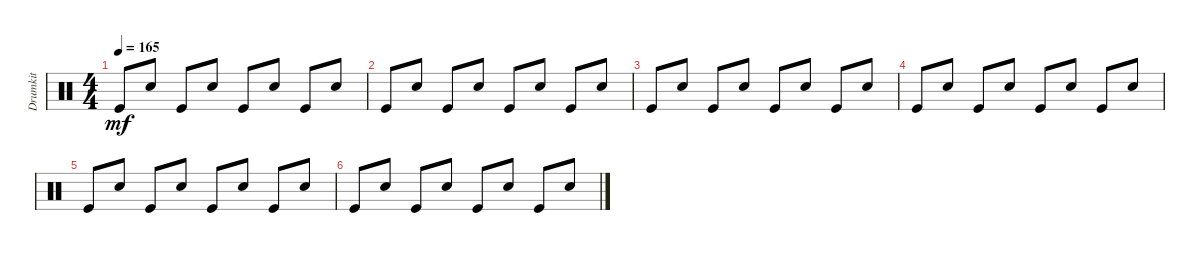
\track ("Drumkit" "Drumkit") {instrument percussion}
\staff {score}
\articulation defaults
\ts (4 4)
\tempo 165
\clef neutral
\ks c "Kick (hit)".8{dy mf} "Electric Snare (hit)".8 "Kick (hit)".8 "Electric Snare (hit)".8 "Kick (hit)".8 "Electric Snare (hit)".8 "Kick (hit)".8 "Electric Snare (hit)".8
|
"Kick (hit)".8 "Electric Snare (hit)".8 "Kick (hit)".8 "Electric Snare (hit)".8 "Kick (hit)".8 "Electric Snare (hit)".8 "Kick (hit)".8 "Electric Snare (hit)".8 |
"Kick (hit)".8 "Electric Snare (hit)".8 "Kick (hit)".8 "Electric Snare (hit)".8 "Kick (hit)".8 "Electric Snare (hit)".8 "Kick (hit)".8 "Electric Snare (hit)".8 |
"Kick (hit)".8 "Electric Snare (hit)".8 "Kick (hit)".8 "Electric Snare (hit)".8 "Kick (hit)".8 "Electric Snare (hit)".8 "Kick (hit)".8 "Electric Snare (hit)".8 |
"Kick (hit)".8 "Electric Snare (hit)".8 "Kick (hit)".8 "Electric Snare (hit)".8 "Kick (hit)".8 "Electric Snare (hit)".8 "Kick (hit)".8 "Electric Snare (hit)".8 |
"Kick (hit)".8 "Electric Snare (hit)".8 "Kick (hit)".8 "Electric Snare (hit)".8 "Kick (hit)".8 "Electric Snare (hit)".8 "Kick (hit)".8 "Electric Snare (hit)".8
